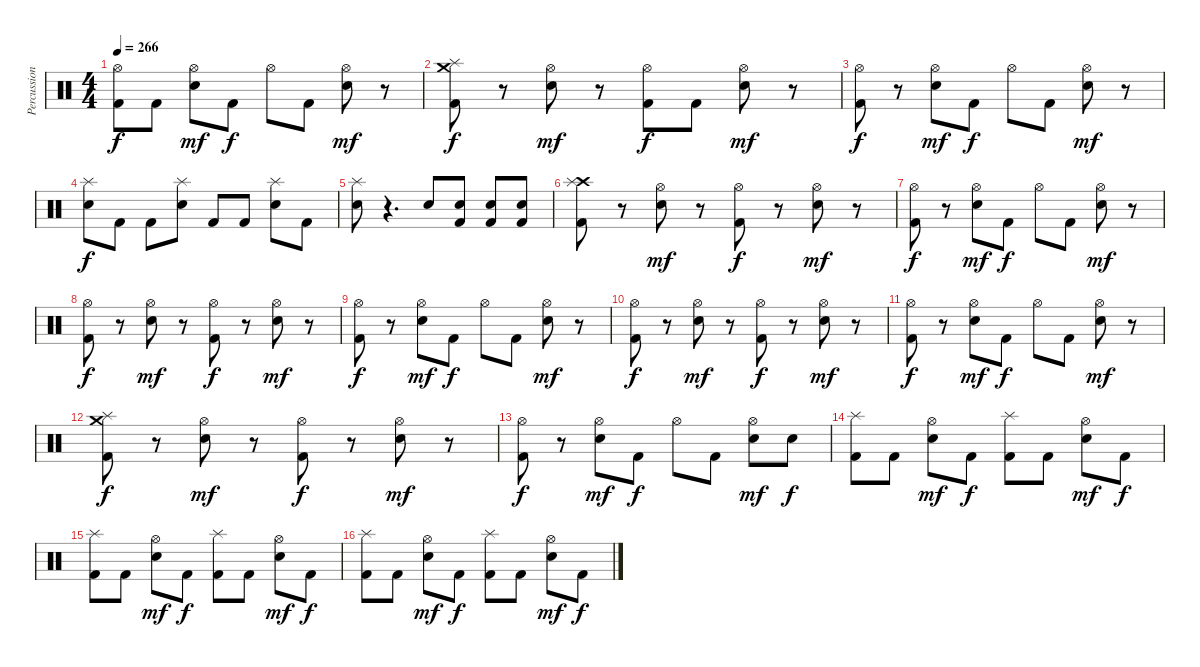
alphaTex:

\track ("Percussion" "Percussion") {instrument percussion}
\staff {score}
\articulation defaults
\ts (4 4)
\tempo 266
\clef neutral
\ks c
("Hi-Hat (open)" "Kick (hit) 2").8{dy f} "Kick (hit) 2".8 ("Hi-Hat (open)" "Snare (hit) 2").8{dy mf} "Kick (hit) 2".8{dy f} "Hi-Hat (open)".8 "Kick (hit) 2".8 ("Hi-Hat (open)" "Snare (hit) 2").8{dy mf} r.8 |
("Crash medium (hit)" "Splash (hit)" "Kick (hit) 2").8{dy f} r.8 ("Snare (hit) 2" "Hi-Hat (open)").8{dy mf} r.8 ("Kick (hit) 2" "Hi-Hat (open)").8{dy f} "Kick (hit) 2".8 ("Snare (hit) 2" "Hi-Hat (open)").8{dy mf} r.8 |
("Kick (hit) 2" "Hi-Hat (open)").8{dy f} r.8 ("Snare (hit) 2" "Hi-Hat (open)").8{dy mf} "Kick (hit) 2".8{dy f} "Hi-Hat (open)".8 "Kick (hit) 2".8 ("Snare (hit) 2" "Hi-Hat (open)").8{dy mf} r.8 |
("Snare (hit) 2" "Splash (hit)").8{dy f} "Kick (hit) 2".8 "Kick (hit) 2".8 ("Splash (hit)" "Snare (hit) 2").8 "Kick (hit) 2".8 "Kick (hit) 2".8 ("Splash (hit)" "Snare (hit) 2").8 "Kick (hit) 2".8 |
("Splash (hit)" "Snare (hit) 2").8 r.4{d} "Snare (hit) 2".8 ("Snare (hit) 2" "Kick (hit) 2").8 ("Snare (hit) 2" "Kick (hit) 2").8 ("Snare (hit) 2" "Kick (hit) 2").8 |
("Crash high (hit)" "Splash (hit)" "Kick (hit) 2").8 r.8 ("Snare (hit) 2" "Hi-Hat (open)").8{dy mf} r.8 ("Kick (hit) 2" "Hi-Hat (open)").8{dy f} r.8 ("Snare (hit) 2" "Hi-Hat (open)").8{dy mf} r.8 |
("Kick (hit) 2" "Hi-Hat (open)").8{dy f} r.8 ("Snare (hit) 2" "Hi-Hat (open)").8{dy mf} "Kick (hit) 2".8{dy f} "Hi-Hat (open)".8 "Kick (hit) 2".8 ("Snare (hit) 2" "Hi-Hat (open)").8{dy mf} r.8 |
("Hi-Hat (open)" "Kick (hit) 2").8{dy f} r.8 ("Snare (hit) 2" "Hi-Hat (open)").8{dy mf} r.8 ("Kick (hit) 2" "Hi-Hat (open)").8{dy f} r.8 ("Snare (hit) 2" "Hi-Hat (open)").8{dy mf} r.8 |
("Kick (hit) 2" "Hi-Hat (open)").8{dy f} r.8 ("Snare (hit) 2" "Hi-Hat (open)").8{dy mf} "Kick (hit) 2".8{dy f} "Hi-Hat (open)".8 "Kick (hit) 2".8 ("Snare (hit) 2" "Hi-Hat (open)").8{dy mf} r.8 |
("Hi-Hat (open)" "Kick (hit) 2").8{dy f} r.8 ("Snare (hit) 2" "Hi-Hat (open)").8{dy mf} r.8 ("Kick (hit) 2" "Hi-Hat (open)").8{dy f} r.8 ("Snare (hit) 2" "Hi-Hat (open)").8{dy mf} r.8 |
("Kick (hit) 2" "Hi-Hat (open)").8{dy f} r.8 ("Snare (hit) 2" "Hi-Hat (open)").8{dy mf} "Kick (hit) 2".8{dy f} "Hi-Hat (open)".8 "Kick (hit) 2".8 ("Snare (hit) 2" "Hi-Hat (open)").8{dy mf} r.8 |
("Splash (hit)" "Crash medium (hit)" "Kick (hit) 2").8{dy f} r.8 ("Snare (hit) 2" "Hi-Hat (open)").8{dy mf} r.8 ("Kick (hit) 2" "Hi-Hat (open)").8{dy f} r.8 ("Snare (hit) 2" "Hi-Hat (open)").8{dy mf} r.8 |
("Kick (hit) 2" "Hi-Hat (open)").8{dy f} r.8 ("Snare (hit) 2" "Hi-Hat (open)").8{dy mf} "Kick (hit) 2".8{dy f} "Hi-Hat (open)".8 "Kick (hit) 2".8 ("Snare (hit) 2" "Hi-Hat (open)").8{dy mf} "Snare (hit) 2".8{dy f} |
("Splash (hit)" "Kick (hit) 2").8 "Kick (hit) 2".8 ("Hi-Hat (open)" "Snare (hit) 2").8{dy mf} "Kick (hit) 2".8{dy f} ("Kick (hit) 2" "Splash (hit)").8 "Kick (hit) 2".8 ("Hi-Hat (open)" "Snare (hit) 2").8{dy mf} "Kick (hit) 2".8{dy f} |
("Splash (hit)" "Kick (hit) 2").8 "Kick (hit) 2".8 ("Hi-Hat (open)" "Snare (hit) 2").8{dy mf} "Kick (hit) 2".8{dy f} ("Kick (hit) 2" "Splash (hit)").8 "Kick (hit) 2".8 ("Hi-Hat (open)" "Snare (hit) 2").8{dy mf} "Kick (hit) 2".8{dy f} |
("Splash (hit)" "Kick (hit) 2").8 "Kick (hit) 2".8 ("Hi-Hat (open)" "Snare (hit) 2").8{dy mf} "Kick (hit) 2".8{dy f} ("Kick (hit) 2" "Splash (hit)").8 "Kick (hit) 2".8 ("Hi-Hat (open)" "Snare (hit) 2").8{dy mf} "Kick (hit) 2".8{dy f}
